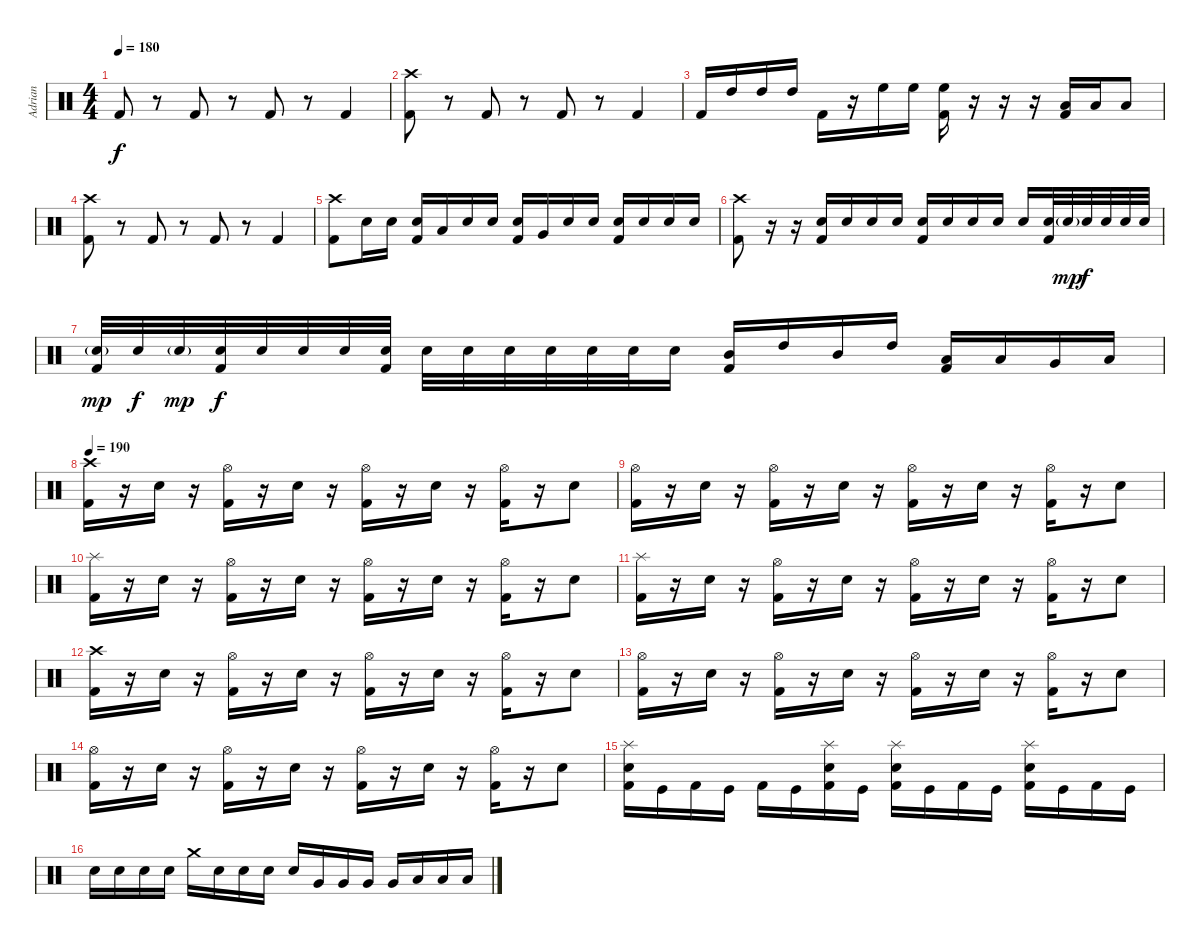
\track ("Adrian" "Adrian") {instrument percussion}
\staff {score}
\articulation defaults
\ts (4 4)
\tempo 180
\clef neutral
\ks c "Kick (hit) 2".8{dy f}
r.8 "Kick (hit) 2".8 r.8 "Kick (hit) 2".8 r.8 "Kick (hit) 2".4 |
("Crash high (hit)" "Kick (hit) 2").8 r.8 "Kick (hit) 2".8 r.8 "Kick (hit) 2".8 r.8 "Kick (hit) 2".4 |
"Kick (hit) 2".16 "High Tom (hit)".16 "High Tom (hit)".16 "High Tom (hit)".16 "Kick (hit) 2".16 r.16 "High Floor Tom (hit)".16 "High Floor Tom (hit)".16 ("High Floor Tom (hit)" "Kick (hit) 2").16 r.16 r.16 r.16 ("Low Tom (hit)" "Kick (hit) 2").16 "Low Tom (hit)".16 "Low Tom (hit)".8 |
("Crash high (hit)" "Kick (hit) 2").8 r.8 "Kick (hit) 2".8 r.8 "Kick (hit) 2".8 r.8 "Kick (hit) 2".4 |
("Crash high (hit)" "Kick (hit) 2").8 "Electric Snare (hit)".16 "Electric Snare (hit)".16 ("Electric Snare (hit)" "Kick (hit) 2").16 "Low Floor Tom (hit)".16 "Electric Snare (hit)".16 "Electric Snare (hit)".16 ("Electric Snare (hit)" "Kick (hit) 2").16 "Very Low Tom (hit)".16 "Electric Snare (hit)".16 "Electric Snare (hit)".16 ("Electric Snare (hit)" "Kick (hit) 2").16 "Electric Snare (hit)".16 "Electric Snare (hit)".16 "Electric Snare (hit)".16 |
("Crash high (hit)" "Kick (hit) 2").8 r.16 r.16 ("Electric Snare (hit)" "Kick (hit) 2").16 "Electric Snare (hit)".16 "Electric Snare (hit)".16 "Electric Snare (hit)".16 ("Electric Snare (hit)" "Kick (hit) 2").16 "Electric Snare (hit)".16 "Electric Snare (hit)".16 "Electric Snare (hit)".16 "Electric Snare (hit)".16 ("Electric Snare (hit)" "Kick (hit) 2").32 "Electric Snare (hit)"{g}.32{dy mp} "Electric Snare (hit)".32{dy f} "Electric Snare (hit)".32 "Electric Snare (hit)".32 "Electric Snare (hit)".32 |
("Electric Snare (hit)"{g} "Kick (hit) 2").32{dy mp} "Electric Snare (hit)".32{dy f} "Electric Snare (hit)"{g}.32{dy mp} ("Electric Snare (hit)" "Kick (hit) 2").32{dy f} "Electric Snare (hit)".32 "Electric Snare (hit)".32 "Electric Snare (hit)".32 ("Electric Snare (hit)" "Kick (hit) 2").32 "Electric Snare (hit)".32 "Electric Snare (hit)".32 "Electric Snare (hit)".32 "Electric Snare (hit)".32 "Electric Snare (hit)".32 "Electric Snare (hit)".32 "Electric Snare (hit)".16 ("Mid Tom (hit)" "Kick (hit) 2").16 "High Tom (hit)".16 "Mid Tom (hit)".16 "High Tom (hit)".16 ("Low Tom (hit)" "Kick (hit) 2").16 "Low Tom (hit)".16 "Very Low Tom (hit)".16 "Low Tom (hit)".16 |
\tempo 190
("Crash high (hit)" "Kick (hit) 2").16 r.16 "Electric Snare (hit)".16 r.16 ("Hi-Hat (open)" "Kick (hit) 2").16 r.16 "Electric Snare (hit)".16 r.16 ("Hi-Hat (open)" "Kick (hit) 2").16 r.16 "Electric Snare (hit)".16 r.16 ("Hi-Hat (open)" "Kick (hit) 2").16 r.16 "Electric Snare (hit)".8 |
("Hi-Hat (open)" "Kick (hit) 2").16 r.16 "Electric Snare (hit)".16 r.16 ("Hi-Hat (open)" "Kick (hit) 2").16 r.16 "Electric Snare (hit)".16 r.16 ("Hi-Hat (open)" "Kick (hit) 2").16 r.16 "Electric Snare (hit)".16 r.16 ("Hi-Hat (open)" "Kick (hit) 2").16 r.16 "Electric Snare (hit)".8 |
("Splash (hit)" "Kick (hit) 2").16 r.16 "Electric Snare (hit)".16 r.16 ("Hi-Hat (open)" "Kick (hit) 2").16 r.16 "Electric Snare (hit)".16 r.16 ("Hi-Hat (open)" "Kick (hit) 2").16 r.16 "Electric Snare (hit)".16 r.16 ("Hi-Hat (open)" "Kick (hit) 2").16 r.16 "Electric Snare (hit)".8 |
("Splash (hit)" "Kick (hit) 2").16 r.16 "Electric Snare (hit)".16 r.16 ("Hi-Hat (open)" "Kick (hit) 2").16 r.16 "Electric Snare (hit)".16 r.16 ("Hi-Hat (open)" "Kick (hit) 2").16 r.16 "Electric Snare (hit)".16 r.16 ("Hi-Hat (open)" "Kick (hit) 2").16 r.16 "Electric Snare (hit)".8 |
("Crash high (hit)" "Kick (hit) 2").16 r.16 "Electric Snare (hit)".16 r.16 ("Hi-Hat (open)" "Kick (hit) 2").16 r.16 "Electric Snare (hit)".16 r.16 ("Hi-Hat (open)" "Kick (hit) 2").16 r.16 "Electric Snare (hit)".16 r.16 ("Hi-Hat (open)" "Kick (hit) 2").16 r.16 "Electric Snare (hit)".8 |
("Hi-Hat (open)" "Kick (hit) 2").16 r.16 "Electric Snare (hit)".16 r.16 ("Hi-Hat (open)" "Kick (hit) 2").16 r.16 "Electric Snare (hit)".16 r.16 ("Hi-Hat (open)" "Kick (hit) 2").16 r.16 "Electric Snare (hit)".16 r.16 ("Hi-Hat (open)" "Kick (hit) 2").16 r.16 "Electric Snare (hit)".8 |
("Hi-Hat (open)" "Kick (hit) 2").16 r.16 "Electric Snare (hit)".16 r.16 ("Hi-Hat (open)" "Kick (hit) 2").16 r.16 "Electric Snare (hit)".16 r.16 ("Hi-Hat (open)" "Kick (hit) 2").16 r.16 "Electric Snare (hit)".16 r.16 ("Hi-Hat (open)" "Kick (hit) 2").16 r.16 "Electric Snare (hit)".8 |
("Splash (hit)" "Electric Snare (hit)" "Kick (hit) 2").16 "Kick (hit)".16 "Kick (hit) 2".16 "Kick (hit)".16 "Kick (hit) 2".16 "Kick (hit)".16 ("Splash (hit)" "Electric Snare (hit)" "Kick (hit) 2").16 "Kick (hit)".16 ("Splash (hit)" "Electric Snare (hit)" "Kick (hit) 2").16 "Kick (hit)".16 "Kick (hit) 2".16 "Kick (hit)".16 ("Splash (hit)" "Electric Snare (hit)" "Kick (hit) 2").16 "Kick (hit)".16 "Kick (hit) 2".16 "Kick (hit)".16 |
"Electric Snare (hit)".16 "Electric Snare (hit)".16 "Electric Snare (hit)".16 "Electric Snare (hit)".16 "Crash medium (hit)".16 "Electric Snare (hit)".16 "Electric Snare (hit)".16 "Electric Snare (hit)".16 "Electric Snare (hit)".16 "Very Low Tom (hit)".16 "Very Low Tom (hit)".16 "Very Low Tom (hit)".16 "Very Low Tom (hit)".16 "Low Floor Tom (hit)".16 "Low Floor Tom (hit)".16 "Low Floor Tom (hit)".16
